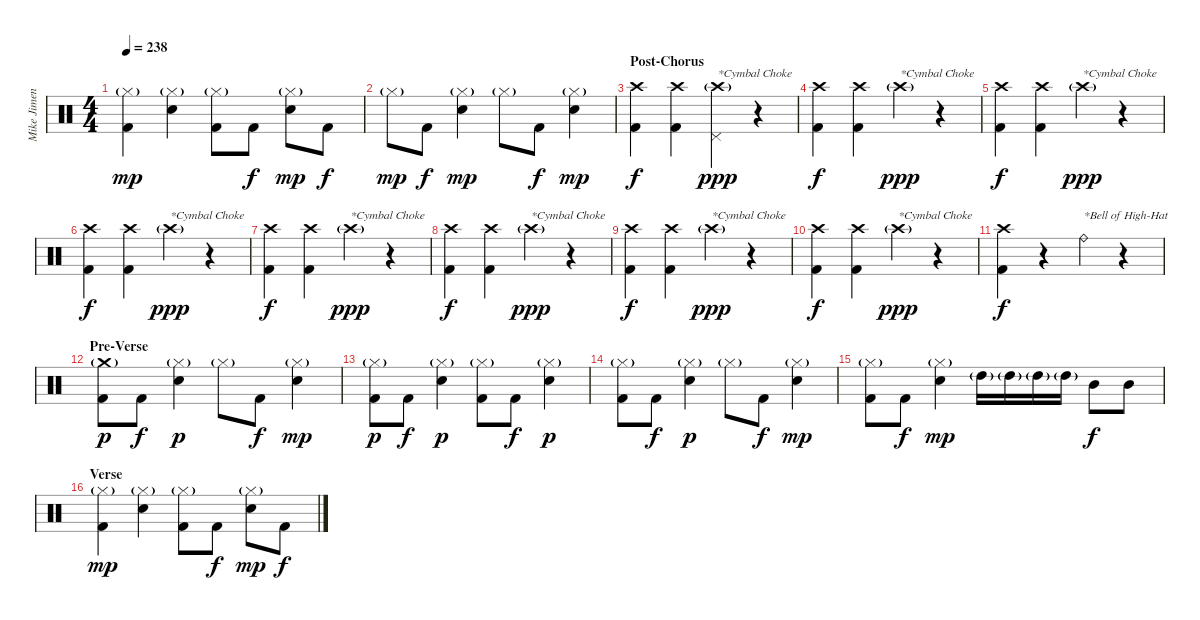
\track ("Mike Jimenez" "Mike Jimen") {instrument percussion}
\staff {score}
\articulation defaults
\ts (4 4)
\tempo 238
\clef neutral
\ks c
("Hi-Hat (closed)"{g} "Kick (hit) 2").4{dy mp} ("Hi-Hat (closed)"{g} "Electric Snare (hit)").4 ("Hi-Hat (closed)"{g} "Kick (hit) 2").8 "Kick (hit) 2".8{dy f} ("Hi-Hat (closed)"{g} "Electric Snare (hit)").8{dy mp} "Kick (hit) 2".8{dy f} |
"Hi-Hat (closed)"{g}.8{dy mp} "Kick (hit) 2".8{dy f} ("Hi-Hat (closed)"{g} "Electric Snare (hit)").4{dy mp} "Hi-Hat (closed)"{g}.8 "Kick (hit) 2".8{dy f} ("Hi-Hat (closed)"{g} "Electric Snare (hit)").4{dy mp} |
\section ("" "Post-Chorus")
("Crash high (hit)" "Kick (hit) 2").4{dy f} ("Crash high (hit)" "Kick (hit) 2").4 ("Crash high (hit)"{g} "Pedal Hi-Hat (hit)").4{txt "*Cymbal Choke" dy ppp} r.4 |
("Crash high (hit)" "Kick (hit) 2").4{dy f} ("Crash high (hit)" "Kick (hit) 2").4 "Crash high (hit)"{g}.4{txt "*Cymbal Choke" dy ppp} r.4 |
("Crash high (hit)" "Kick (hit) 2").4{dy f} ("Crash high (hit)" "Kick (hit) 2").4 "Crash high (hit)"{g}.4{txt "*Cymbal Choke" dy ppp} r.4 |
("Crash high (hit)" "Kick (hit) 2").4{dy f} ("Crash high (hit)" "Kick (hit) 2").4 "Crash high (hit)"{g}.4{txt "*Cymbal Choke" dy ppp} r.4 |
("Crash high (hit)" "Kick (hit) 2").4{dy f} ("Crash high (hit)" "Kick (hit) 2").4 "Crash high (hit)"{g}.4{txt "*Cymbal Choke" dy ppp} r.4 |
("Crash high (hit)" "Kick (hit) 2").4{dy f} ("Crash high (hit)" "Kick (hit) 2").4 "Crash high (hit)"{g}.4{txt "*Cymbal Choke" dy ppp} r.4 |
("Crash high (hit)" "Kick (hit) 2").4{dy f} ("Crash high (hit)" "Kick (hit) 2").4 "Crash high (hit)"{g}.4{txt "*Cymbal Choke" dy ppp} r.4 |
("Crash high (hit)" "Kick (hit) 2").4{dy f} ("Crash high (hit)" "Kick (hit) 2").4 "Crash high (hit)"{g}.4{txt "*Cymbal Choke" dy ppp} r.4 |
("Crash high (hit)" "Kick (hit) 2").4{dy f} r.4 "Ride (bell)".4{txt "*Bell of High-Hat"} r.4 |
\section ("" "Pre-Verse")
("Crash medium (hit)"{g} "Kick (hit) 2").8{dy p} "Kick (hit) 2".8{dy f} ("Hi-Hat (closed)"{g} "Electric Snare (hit)").4{dy p} "Hi-Hat (closed)"{g}.8 "Kick (hit) 2".8{dy f} ("Hi-Hat (closed)"{g} "Electric Snare (hit)").4{dy mp} |
("Hi-Hat (closed)"{g} "Kick (hit) 2").8{dy p} "Kick (hit) 2".8{dy f} ("Hi-Hat (closed)"{g} "Electric Snare (hit)").4{dy p} ("Hi-Hat (closed)"{g} "Kick (hit) 2").8 "Kick (hit) 2".8{dy f} ("Hi-Hat (closed)"{g} "Electric Snare (hit)").4{dy p} |
("Hi-Hat (closed)"{g} "Kick (hit) 2").8 "Kick (hit) 2".8{dy f} ("Hi-Hat (closed)"{g} "Electric Snare (hit)").4{dy p} "Hi-Hat (closed)"{g}.8 "Kick (hit) 2".8{dy f} ("Hi-Hat (closed)"{g} "Electric Snare (hit)").4{dy mp} |
("Hi-Hat (closed)"{g} "Kick (hit) 2").8 "Kick (hit) 2".8{dy f} ("Hi-Hat (closed)"{g} "Electric Snare (hit)").4{dy mp} "High Tom (hit)"{g}.16 "High Tom (hit)"{g}.16 "High Tom (hit)"{g}.16 "High Tom (hit)"{g}.16 "Mid Tom (hit)".8{dy f} "Mid Tom (hit)".8 |
\section ("" "Verse")
("Hi-Hat (closed)"{g} "Kick (hit) 2").4{dy mp} ("Hi-Hat (closed)"{g} "Electric Snare (hit)").4 ("Hi-Hat (closed)"{g} "Kick (hit) 2").8 "Kick (hit) 2".8{dy f} ("Hi-Hat (closed)"{g} "Electric Snare (hit)").8{dy mp} "Kick (hit) 2".8{dy f}
